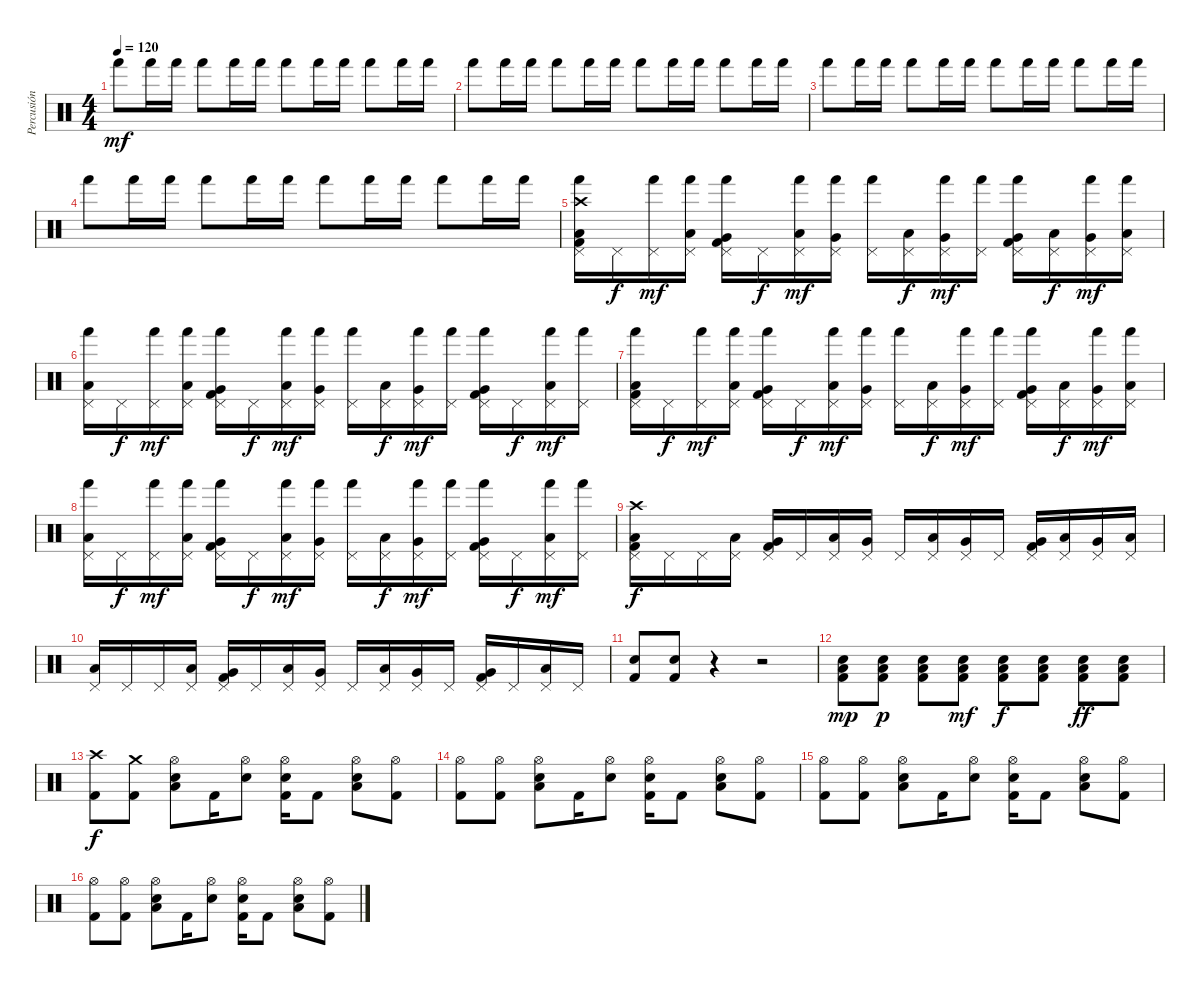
\track ("Percusión" "Percusión") {instrument percussion}
\staff {score}
\articulation defaults
\ts (4 4)
\tempo 120
\clef neutral
\ks c "Hand (hit)".8{dy mf} "Hand (hit)".16 "Hand (hit)".16 "Hand (hit)".8 "Hand (hit)".16 "Hand (hit)".16 "Hand (hit)".8 "Hand (hit)".16 "Hand (hit)".16 "Hand (hit)".8 "Hand (hit)".16 "Hand (hit)".16
|
"Hand (hit)".8 "Hand (hit)".16 "Hand (hit)".16 "Hand (hit)".8 "Hand (hit)".16 "Hand (hit)".16 "Hand (hit)".8 "Hand (hit)".16 "Hand (hit)".16 "Hand (hit)".8 "Hand (hit)".16 "Hand (hit)".16 |
"Hand (hit)".8 "Hand (hit)".16 "Hand (hit)".16 "Hand (hit)".8 "Hand (hit)".16 "Hand (hit)".16 "Hand (hit)".8 "Hand (hit)".16 "Hand (hit)".16 "Hand (hit)".8 "Hand (hit)".16 "Hand (hit)".16 |
"Hand (hit)".8 "Hand (hit)".16 "Hand (hit)".16 "Hand (hit)".8 "Hand (hit)".16 "Hand (hit)".16 "Hand (hit)".8 "Hand (hit)".16 "Hand (hit)".16 "Hand (hit)".8 "Hand (hit)".16 "Hand (hit)".16 |
("Crash high (hit)" "Pedal Hi-Hat (hit)" "Hand (hit)" "Low Floor Tom (hit)" "Kick (hit) 2").16 "Pedal Hi-Hat (hit)".16{dy f} ("Pedal Hi-Hat (hit)" "Hand (hit)").16{dy mf} ("Pedal Hi-Hat (hit)" "Hand (hit)" "Low Floor Tom (hit)").16 ("Pedal Hi-Hat (hit)" "Hand (hit)" "Very Low Tom (hit)" "Kick (hit) 2").16 "Pedal Hi-Hat (hit)".16{dy f} ("Pedal Hi-Hat (hit)" "Hand (hit)" "Low Floor Tom (hit)").16{dy mf} ("Pedal Hi-Hat (hit)" "Hand (hit)" "Very Low Tom (hit)").16 ("Pedal Hi-Hat (hit)" "Hand (hit)").16 ("Pedal Hi-Hat (hit)" "Low Floor Tom (hit)").16{dy f} ("Pedal Hi-Hat (hit)" "Hand (hit)" "Very Low Tom (hit)").16{dy mf} ("Pedal Hi-Hat (hit)" "Hand (hit)").16 ("Pedal Hi-Hat (hit)" "Hand (hit)" "Very Low Tom (hit)" "Kick (hit) 2").16 ("Pedal Hi-Hat (hit)" "Low Floor Tom (hit)").16{dy f} ("Pedal Hi-Hat (hit)" "Hand (hit)" "Very Low Tom (hit)").16{dy mf} ("Pedal Hi-Hat (hit)" "Hand (hit)" "Low Floor Tom (hit)").16 |
("Pedal Hi-Hat (hit)" "Hand (hit)" "Low Floor Tom (hit)").16 "Pedal Hi-Hat (hit)".16{dy f} ("Pedal Hi-Hat (hit)" "Hand (hit)").16{dy mf} ("Pedal Hi-Hat (hit)" "Hand (hit)" "Low Floor Tom (hit)").16 ("Pedal Hi-Hat (hit)" "Hand (hit)" "Very Low Tom (hit)" "Kick (hit) 2").16 "Pedal Hi-Hat (hit)".16{dy f} ("Pedal Hi-Hat (hit)" "Hand (hit)" "Low Floor Tom (hit)").16{dy mf} ("Pedal Hi-Hat (hit)" "Hand (hit)" "Very Low Tom (hit)").16 ("Pedal Hi-Hat (hit)" "Hand (hit)").16 ("Pedal Hi-Hat (hit)" "Low Floor Tom (hit)").16{dy f} ("Pedal Hi-Hat (hit)" "Hand (hit)" "Very Low Tom (hit)").16{dy mf} ("Pedal Hi-Hat (hit)" "Hand (hit)").16 ("Pedal Hi-Hat (hit)" "Hand (hit)" "Very Low Tom (hit)" "Kick (hit) 2").16 "Pedal Hi-Hat (hit)".16{dy f} ("Pedal Hi-Hat (hit)" "Hand (hit)" "Low Floor Tom (hit)").16{dy mf} ("Pedal Hi-Hat (hit)" "Hand (hit)").16 |
("Pedal Hi-Hat (hit)" "Hand (hit)" "Low Floor Tom (hit)" "Kick (hit) 2").16 "Pedal Hi-Hat (hit)".16{dy f} ("Pedal Hi-Hat (hit)" "Hand (hit)").16{dy mf} ("Pedal Hi-Hat (hit)" "Hand (hit)" "Low Floor Tom (hit)").16 ("Pedal Hi-Hat (hit)" "Hand (hit)" "Very Low Tom (hit)" "Kick (hit) 2").16 "Pedal Hi-Hat (hit)".16{dy f} ("Pedal Hi-Hat (hit)" "Hand (hit)" "Low Floor Tom (hit)").16{dy mf} ("Pedal Hi-Hat (hit)" "Hand (hit)" "Very Low Tom (hit)").16 ("Pedal Hi-Hat (hit)" "Hand (hit)").16 ("Pedal Hi-Hat (hit)" "Low Floor Tom (hit)").16{dy f} ("Pedal Hi-Hat (hit)" "Hand (hit)" "Very Low Tom (hit)").16{dy mf} ("Pedal Hi-Hat (hit)" "Hand (hit)").16 ("Pedal Hi-Hat (hit)" "Hand (hit)" "Very Low Tom (hit)" "Kick (hit) 2").16 ("Pedal Hi-Hat (hit)" "Low Floor Tom (hit)").16{dy f} ("Pedal Hi-Hat (hit)" "Hand (hit)" "Very Low Tom (hit)").16{dy mf} ("Pedal Hi-Hat (hit)" "Hand (hit)" "Low Floor Tom (hit)").16 |
("Pedal Hi-Hat (hit)" "Hand (hit)" "Low Floor Tom (hit)").16 "Pedal Hi-Hat (hit)".16{dy f} ("Pedal Hi-Hat (hit)" "Hand (hit)").16{dy mf} ("Pedal Hi-Hat (hit)" "Hand (hit)" "Low Floor Tom (hit)").16 ("Pedal Hi-Hat (hit)" "Hand (hit)" "Very Low Tom (hit)" "Kick (hit) 2").16 "Pedal Hi-Hat (hit)".16{dy f} ("Pedal Hi-Hat (hit)" "Hand (hit)" "Low Floor Tom (hit)").16{dy mf} ("Pedal Hi-Hat (hit)" "Hand (hit)" "Very Low Tom (hit)").16 ("Pedal Hi-Hat (hit)" "Hand (hit)").16 ("Pedal Hi-Hat (hit)" "Low Floor Tom (hit)").16{dy f} ("Pedal Hi-Hat (hit)" "Hand (hit)" "Very Low Tom (hit)").16{dy mf} ("Pedal Hi-Hat (hit)" "Hand (hit)").16 ("Pedal Hi-Hat (hit)" "Hand (hit)" "Very Low Tom (hit)" "Kick (hit) 2").16 "Pedal Hi-Hat (hit)".16{dy f} ("Pedal Hi-Hat (hit)" "Hand (hit)" "Low Floor Tom (hit)").16{dy mf} ("Pedal Hi-Hat (hit)" "Hand (hit)").16 |
("Crash high (hit)" "Pedal Hi-Hat (hit)" "Low Floor Tom (hit)" "Kick (hit) 2").16{dy f} "Pedal Hi-Hat (hit)".16 "Pedal Hi-Hat (hit)".16 ("Pedal Hi-Hat (hit)" "Low Floor Tom (hit)").16 ("Pedal Hi-Hat (hit)" "Very Low Tom (hit)" "Kick (hit) 2").16 "Pedal Hi-Hat (hit)".16 ("Pedal Hi-Hat (hit)" "Low Floor Tom (hit)").16 ("Pedal Hi-Hat (hit)" "Very Low Tom (hit)").16 "Pedal Hi-Hat (hit)".16 ("Pedal Hi-Hat (hit)" "Low Floor Tom (hit)").16 ("Pedal Hi-Hat (hit)" "Very Low Tom (hit)").16 "Pedal Hi-Hat (hit)".16 ("Pedal Hi-Hat (hit)" "Very Low Tom (hit)" "Kick (hit) 2").16 ("Pedal Hi-Hat (hit)" "Low Floor Tom (hit)").16 ("Pedal Hi-Hat (hit)" "Very Low Tom (hit)").16 ("Pedal Hi-Hat (hit)" "Low Floor Tom (hit)").16 |
("Pedal Hi-Hat (hit)" "Low Floor Tom (hit)").16 "Pedal Hi-Hat (hit)".16 "Pedal Hi-Hat (hit)".16 ("Pedal Hi-Hat (hit)" "Low Floor Tom (hit)").16 ("Pedal Hi-Hat (hit)" "Very Low Tom (hit)" "Kick (hit) 2").16 "Pedal Hi-Hat (hit)".16 ("Pedal Hi-Hat (hit)" "Low Floor Tom (hit)").16 ("Pedal Hi-Hat (hit)" "Very Low Tom (hit)").16 "Pedal Hi-Hat (hit)".16 ("Pedal Hi-Hat (hit)" "Low Floor Tom (hit)").16 ("Pedal Hi-Hat (hit)" "Very Low Tom (hit)").16 "Pedal Hi-Hat (hit)".16 ("Pedal Hi-Hat (hit)" "Very Low Tom (hit)" "Kick (hit) 2").16 "Pedal Hi-Hat (hit)".16 ("Pedal Hi-Hat (hit)" "Low Floor Tom (hit)").16 "Pedal Hi-Hat (hit)".16 |
("Electric Snare (hit)" "Kick (hit) 2").8 ("Electric Snare (hit)" "Kick (hit) 2").8 r.4 r.2 |
("Electric Snare (hit)" "Low Floor Tom (hit)" "Kick (hit) 2").8{dy mp} ("Electric Snare (hit)" "Low Floor Tom (hit)" "Kick (hit) 2").8{dy p} ("Electric Snare (hit)" "Low Floor Tom (hit)" "Kick (hit) 2").8 ("Electric Snare (hit)" "Low Floor Tom (hit)" "Kick (hit) 2").8{dy mf} ("Electric Snare (hit)" "Low Floor Tom (hit)" "Kick (hit) 2").8{dy f} ("Electric Snare (hit)" "Low Floor Tom (hit)" "Kick (hit) 2").8 ("Electric Snare (hit)" "Low Floor Tom (hit)" "Kick (hit) 2").8{dy ff} ("Electric Snare (hit)" "Low Floor Tom (hit)" "Kick (hit) 2").8 |
("Crash high (hit)" "Kick (hit) 2").8{dy f} ("Crash medium (hit)" "Kick (hit) 2").8 ("Hi-Hat (open)" "Electric Snare (hit)" "Low Floor Tom (hit)").8 "Kick (hit) 2".16 ("Hi-Hat (open)" "Electric Snare (hit)").8 ("Hi-Hat (open)" "Electric Snare (hit)" "Kick (hit) 2").16 "Kick (hit) 2".8 ("Hi-Hat (open)" "Electric Snare (hit)" "Low Floor Tom (hit)").8 ("Hi-Hat (open)" "Kick (hit) 2").8 |
("Hi-Hat (open)" "Kick (hit) 2").8 ("Hi-Hat (open)" "Kick (hit) 2").8 ("Hi-Hat (open)" "Electric Snare (hit)" "Low Floor Tom (hit)").8 "Kick (hit) 2".16 ("Hi-Hat (open)" "Electric Snare (hit)").8 ("Hi-Hat (open)" "Electric Snare (hit)" "Kick (hit) 2").16 "Kick (hit) 2".8 ("Hi-Hat (open)" "Electric Snare (hit)" "Low Floor Tom (hit)").8 ("Hi-Hat (open)" "Kick (hit) 2").8 |
("Hi-Hat (open)" "Kick (hit) 2").8 ("Hi-Hat (open)" "Kick (hit) 2").8 ("Hi-Hat (open)" "Electric Snare (hit)" "Low Floor Tom (hit)").8 "Kick (hit) 2".16 ("Hi-Hat (open)" "Electric Snare (hit)").8 ("Hi-Hat (open)" "Electric Snare (hit)" "Kick (hit) 2").16 "Kick (hit) 2".8 ("Hi-Hat (open)" "Electric Snare (hit)" "Low Floor Tom (hit)").8 ("Hi-Hat (open)" "Kick (hit) 2").8 |
("Hi-Hat (open)" "Kick (hit) 2").8 ("Hi-Hat (open)" "Kick (hit) 2").8 ("Hi-Hat (open)" "Electric Snare (hit)" "Low Floor Tom (hit)").8 "Kick (hit) 2".16 ("Hi-Hat (open)" "Electric Snare (hit)").8 ("Hi-Hat (open)" "Electric Snare (hit)" "Kick (hit) 2").16 "Kick (hit) 2".8 ("Hi-Hat (open)" "Electric Snare (hit)" "Low Floor Tom (hit)").8 ("Hi-Hat (open)" "Kick (hit) 2").8
